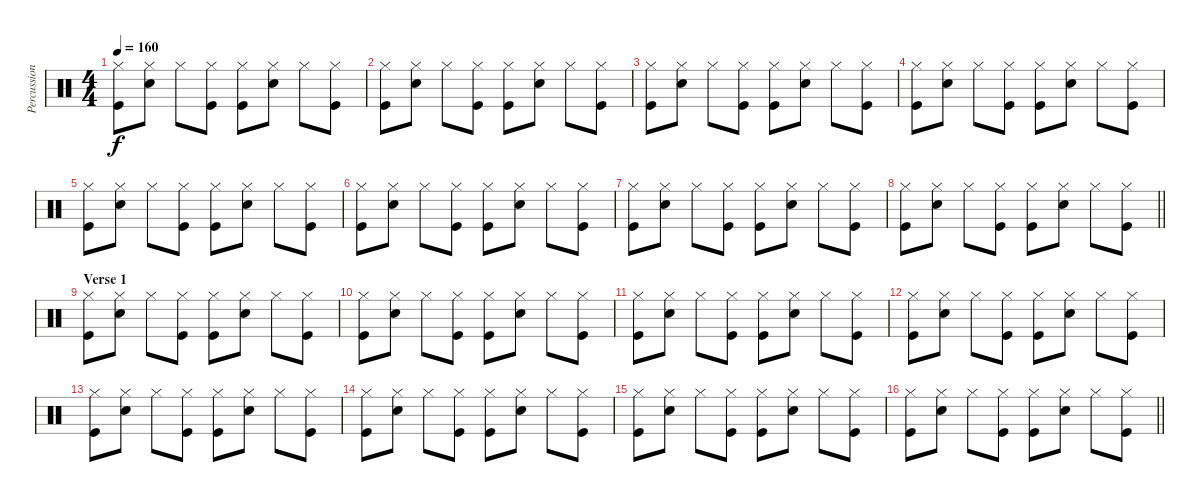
\track ("Percussion" "Percussion") {instrument percussion}
\staff {score}
\articulation defaults
\ts (4 4)
\tempo 160
\clef neutral
\ks c
("Hi-Hat (closed)" "Kick (hit)").8{dy f} ("Hi-Hat (closed)" "Electric Snare (hit)").8 "Hi-Hat (closed)".8 ("Hi-Hat (closed)" "Kick (hit)").8 ("Hi-Hat (closed)" "Kick (hit)").8 ("Hi-Hat (closed)" "Electric Snare (hit)").8 "Hi-Hat (closed)".8 ("Hi-Hat (closed)" "Kick (hit)").8 |
("Hi-Hat (closed)" "Kick (hit)").8 ("Hi-Hat (closed)" "Electric Snare (hit)").8 "Hi-Hat (closed)".8 ("Hi-Hat (closed)" "Kick (hit)").8 ("Hi-Hat (closed)" "Kick (hit)").8 ("Hi-Hat (closed)" "Electric Snare (hit)").8 "Hi-Hat (closed)".8 ("Hi-Hat (closed)" "Kick (hit)").8 |
("Hi-Hat (closed)" "Kick (hit)").8 ("Hi-Hat (closed)" "Electric Snare (hit)").8 "Hi-Hat (closed)".8 ("Hi-Hat (closed)" "Kick (hit)").8 ("Hi-Hat (closed)" "Kick (hit)").8 ("Hi-Hat (closed)" "Electric Snare (hit)").8 "Hi-Hat (closed)".8 ("Hi-Hat (closed)" "Kick (hit)").8 |
("Hi-Hat (closed)" "Kick (hit)").8 ("Hi-Hat (closed)" "Electric Snare (hit)").8 "Hi-Hat (closed)".8 ("Hi-Hat (closed)" "Kick (hit)").8 ("Hi-Hat (closed)" "Kick (hit)").8 ("Hi-Hat (closed)" "Electric Snare (hit)").8 "Hi-Hat (closed)".8 ("Hi-Hat (closed)" "Kick (hit)").8 |
("Hi-Hat (closed)" "Kick (hit)").8 ("Hi-Hat (closed)" "Electric Snare (hit)").8 "Hi-Hat (closed)".8 ("Hi-Hat (closed)" "Kick (hit)").8 ("Hi-Hat (closed)" "Kick (hit)").8 ("Hi-Hat (closed)" "Electric Snare (hit)").8 "Hi-Hat (closed)".8 ("Hi-Hat (closed)" "Kick (hit)").8 |
("Hi-Hat (closed)" "Kick (hit)").8 ("Hi-Hat (closed)" "Electric Snare (hit)").8 "Hi-Hat (closed)".8 ("Hi-Hat (closed)" "Kick (hit)").8 ("Hi-Hat (closed)" "Kick (hit)").8 ("Hi-Hat (closed)" "Electric Snare (hit)").8 "Hi-Hat (closed)".8 ("Hi-Hat (closed)" "Kick (hit)").8 |
("Hi-Hat (closed)" "Kick (hit)").8 ("Hi-Hat (closed)" "Electric Snare (hit)").8 "Hi-Hat (closed)".8 ("Hi-Hat (closed)" "Kick (hit)").8 ("Hi-Hat (closed)" "Kick (hit)").8 ("Hi-Hat (closed)" "Electric Snare (hit)").8 "Hi-Hat (closed)".8 ("Hi-Hat (closed)" "Kick (hit)").8 |
\barLineRight lightlight
("Hi-Hat (closed)" "Kick (hit)").8 ("Hi-Hat (closed)" "Electric Snare (hit)").8 "Hi-Hat (closed)".8 ("Hi-Hat (closed)" "Kick (hit)").8 ("Hi-Hat (closed)" "Kick (hit)").8 ("Hi-Hat (closed)" "Electric Snare (hit)").8 "Hi-Hat (closed)".8 ("Hi-Hat (closed)" "Kick (hit)").8 |
\section ("" "Verse 1")
("Hi-Hat (closed)" "Kick (hit)").8 ("Hi-Hat (closed)" "Electric Snare (hit)").8 "Hi-Hat (closed)".8 ("Hi-Hat (closed)" "Kick (hit)").8 ("Hi-Hat (closed)" "Kick (hit)").8 ("Hi-Hat (closed)" "Electric Snare (hit)").8 "Hi-Hat (closed)".8 ("Hi-Hat (closed)" "Kick (hit)").8 |
("Hi-Hat (closed)" "Kick (hit)").8 ("Hi-Hat (closed)" "Electric Snare (hit)").8 "Hi-Hat (closed)".8 ("Hi-Hat (closed)" "Kick (hit)").8 ("Hi-Hat (closed)" "Kick (hit)").8 ("Hi-Hat (closed)" "Electric Snare (hit)").8 "Hi-Hat (closed)".8 ("Hi-Hat (closed)" "Kick (hit)").8 |
("Hi-Hat (closed)" "Kick (hit)").8 ("Hi-Hat (closed)" "Electric Snare (hit)").8 "Hi-Hat (closed)".8 ("Hi-Hat (closed)" "Kick (hit)").8 ("Hi-Hat (closed)" "Kick (hit)").8 ("Hi-Hat (closed)" "Electric Snare (hit)").8 "Hi-Hat (closed)".8 ("Hi-Hat (closed)" "Kick (hit)").8 |
("Hi-Hat (closed)" "Kick (hit)").8 ("Hi-Hat (closed)" "Electric Snare (hit)").8 "Hi-Hat (closed)".8 ("Hi-Hat (closed)" "Kick (hit)").8 ("Hi-Hat (closed)" "Kick (hit)").8 ("Hi-Hat (closed)" "Electric Snare (hit)").8 "Hi-Hat (closed)".8 ("Hi-Hat (closed)" "Kick (hit)").8 |
("Hi-Hat (closed)" "Kick (hit)").8 ("Hi-Hat (closed)" "Electric Snare (hit)").8 "Hi-Hat (closed)".8 ("Hi-Hat (closed)" "Kick (hit)").8 ("Hi-Hat (closed)" "Kick (hit)").8 ("Hi-Hat (closed)" "Electric Snare (hit)").8 "Hi-Hat (closed)".8 ("Hi-Hat (closed)" "Kick (hit)").8 |
("Hi-Hat (closed)" "Kick (hit)").8 ("Hi-Hat (closed)" "Electric Snare (hit)").8 "Hi-Hat (closed)".8 ("Hi-Hat (closed)" "Kick (hit)").8 ("Hi-Hat (closed)" "Kick (hit)").8 ("Hi-Hat (closed)" "Electric Snare (hit)").8 "Hi-Hat (closed)".8 ("Hi-Hat (closed)" "Kick (hit)").8 |
("Hi-Hat (closed)" "Kick (hit)").8 ("Hi-Hat (closed)" "Electric Snare (hit)").8 "Hi-Hat (closed)".8 ("Hi-Hat (closed)" "Kick (hit)").8 ("Hi-Hat (closed)" "Kick (hit)").8 ("Hi-Hat (closed)" "Electric Snare (hit)").8 "Hi-Hat (closed)".8 ("Hi-Hat (closed)" "Kick (hit)").8 |
\barLineRight lightlight
("Hi-Hat (closed)" "Kick (hit)").8 ("Hi-Hat (closed)" "Electric Snare (hit)").8 "Hi-Hat (closed)".8 ("Hi-Hat (closed)" "Kick (hit)").8 ("Hi-Hat (closed)" "Kick (hit)").8 ("Hi-Hat (closed)" "Electric Snare (hit)").8 "Hi-Hat (closed)".8 ("Hi-Hat (closed)" "Kick (hit)").8
